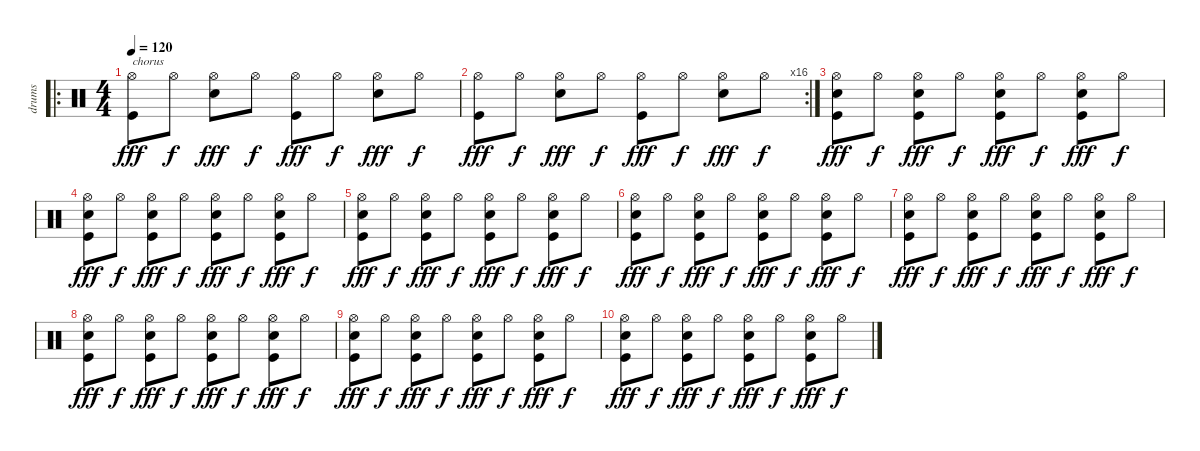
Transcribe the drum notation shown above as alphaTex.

\track ("drums" "drums") {instrument percussion}
\staff {score}
\articulation defaults
\ro
\ts (4 4)
\tempo 120
\clef neutral
\ks c
("Hi-Hat (open)" "Kick (hit)").8{txt "chorus" dy fff} "Hi-Hat (open)".8{dy f} ("Hi-Hat (open)" "Snare (hit) 2").8{dy fff} "Hi-Hat (open)".8{dy f} ("Hi-Hat (open)" "Kick (hit)").8{dy fff} "Hi-Hat (open)".8{dy f} ("Hi-Hat (open)" "Snare (hit) 2").8{dy fff} "Hi-Hat (open)".8{dy f} |
\rc 16
("Hi-Hat (open)" "Kick (hit)").8{dy fff} "Hi-Hat (open)".8{dy f} ("Hi-Hat (open)" "Snare (hit) 2").8{dy fff} "Hi-Hat (open)".8{dy f} ("Hi-Hat (open)" "Kick (hit)").8{dy fff} "Hi-Hat (open)".8{dy f} ("Hi-Hat (open)" "Snare (hit) 2").8{dy fff} "Hi-Hat (open)".8{dy f} |
("Hi-Hat (open)" "Snare (hit) 2" "Kick (hit)").8{dy fff} "Hi-Hat (open)".8{dy f} ("Hi-Hat (open)" "Snare (hit) 2" "Kick (hit)").8{dy fff} "Hi-Hat (open)".8{dy f} ("Hi-Hat (open)" "Snare (hit) 2" "Kick (hit)").8{dy fff} "Hi-Hat (open)".8{dy f} ("Hi-Hat (open)" "Snare (hit) 2" "Kick (hit)").8{dy fff} "Hi-Hat (open)".8{dy f} |
("Hi-Hat (open)" "Snare (hit) 2" "Kick (hit)").8{dy fff} "Hi-Hat (open)".8{dy f} ("Hi-Hat (open)" "Snare (hit) 2" "Kick (hit)").8{dy fff} "Hi-Hat (open)".8{dy f} ("Hi-Hat (open)" "Snare (hit) 2" "Kick (hit)").8{dy fff} "Hi-Hat (open)".8{dy f} ("Hi-Hat (open)" "Snare (hit) 2" "Kick (hit)").8{dy fff} "Hi-Hat (open)".8{dy f} |
("Hi-Hat (open)" "Snare (hit) 2" "Kick (hit)").8{dy fff} "Hi-Hat (open)".8{dy f} ("Hi-Hat (open)" "Snare (hit) 2" "Kick (hit)").8{dy fff} "Hi-Hat (open)".8{dy f} ("Hi-Hat (open)" "Snare (hit) 2" "Kick (hit)").8{dy fff} "Hi-Hat (open)".8{dy f} ("Hi-Hat (open)" "Snare (hit) 2" "Kick (hit)").8{dy fff} "Hi-Hat (open)".8{dy f} |
("Hi-Hat (open)" "Snare (hit) 2" "Kick (hit)").8{dy fff} "Hi-Hat (open)".8{dy f} ("Hi-Hat (open)" "Snare (hit) 2" "Kick (hit)").8{dy fff} "Hi-Hat (open)".8{dy f} ("Hi-Hat (open)" "Snare (hit) 2" "Kick (hit)").8{dy fff} "Hi-Hat (open)".8{dy f} ("Hi-Hat (open)" "Snare (hit) 2" "Kick (hit)").8{dy fff} "Hi-Hat (open)".8{dy f} |
("Hi-Hat (open)" "Snare (hit) 2" "Kick (hit)").8{dy fff} "Hi-Hat (open)".8{dy f} ("Hi-Hat (open)" "Snare (hit) 2" "Kick (hit)").8{dy fff} "Hi-Hat (open)".8{dy f} ("Hi-Hat (open)" "Snare (hit) 2" "Kick (hit)").8{dy fff} "Hi-Hat (open)".8{dy f} ("Hi-Hat (open)" "Snare (hit) 2" "Kick (hit)").8{dy fff} "Hi-Hat (open)".8{dy f} |
("Hi-Hat (open)" "Snare (hit) 2" "Kick (hit)").8{dy fff} "Hi-Hat (open)".8{dy f} ("Hi-Hat (open)" "Snare (hit) 2" "Kick (hit)").8{dy fff} "Hi-Hat (open)".8{dy f} ("Hi-Hat (open)" "Snare (hit) 2" "Kick (hit)").8{dy fff} "Hi-Hat (open)".8{dy f} ("Hi-Hat (open)" "Snare (hit) 2" "Kick (hit)").8{dy fff} "Hi-Hat (open)".8{dy f} |
("Hi-Hat (open)" "Snare (hit) 2" "Kick (hit)").8{dy fff} "Hi-Hat (open)".8{dy f} ("Hi-Hat (open)" "Snare (hit) 2" "Kick (hit)").8{dy fff} "Hi-Hat (open)".8{dy f} ("Hi-Hat (open)" "Snare (hit) 2" "Kick (hit)").8{dy fff} "Hi-Hat (open)".8{dy f} ("Hi-Hat (open)" "Snare (hit) 2" "Kick (hit)").8{dy fff} "Hi-Hat (open)".8{dy f} |
("Hi-Hat (open)" "Snare (hit) 2" "Kick (hit)").8{dy fff} "Hi-Hat (open)".8{dy f} ("Hi-Hat (open)" "Snare (hit) 2" "Kick (hit)").8{dy fff} "Hi-Hat (open)".8{dy f} ("Hi-Hat (open)" "Snare (hit) 2" "Kick (hit)").8{dy fff} "Hi-Hat (open)".8{dy f} ("Hi-Hat (open)" "Snare (hit) 2" "Kick (hit)").8{dy fff} "Hi-Hat (open)".8{dy f}
